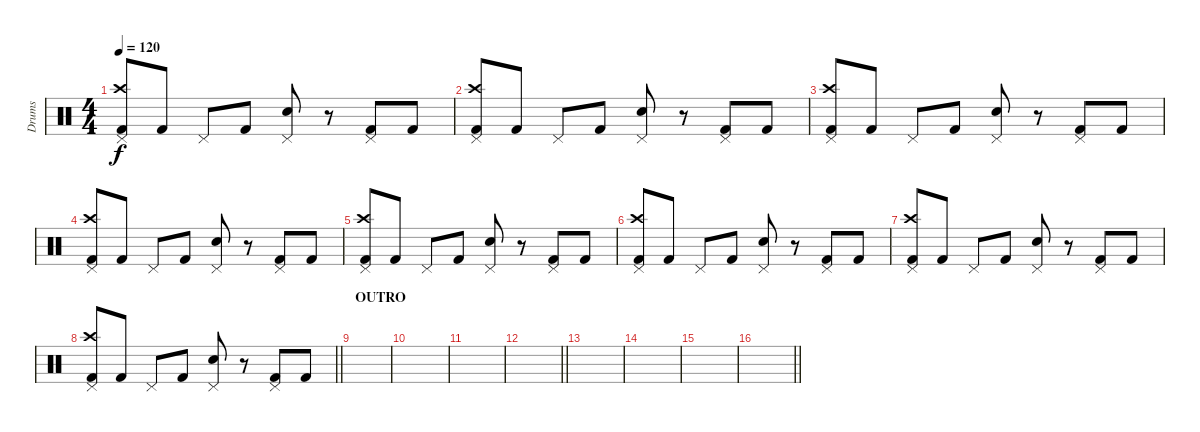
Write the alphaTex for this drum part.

\track ("Drums" "Drums") {instrument percussion}
\staff {score}
\articulation defaults
\ts (4 4)
\tempo 120
\clef neutral
\ks c
("Pedal Hi-Hat (hit)" "Crash high (hit)" "Kick (hit) 2").8{dy f} "Kick (hit) 2".8 "Pedal Hi-Hat (hit)".8 "Kick (hit) 2".8 ("Pedal Hi-Hat (hit)" "Snare (hit) 2").8 r.8 ("Pedal Hi-Hat (hit)" "Kick (hit) 2").8 "Kick (hit) 2".8 |
("Pedal Hi-Hat (hit)" "Crash high (hit)" "Kick (hit) 2").8 "Kick (hit) 2".8 "Pedal Hi-Hat (hit)".8 "Kick (hit) 2".8 ("Pedal Hi-Hat (hit)" "Snare (hit) 2").8 r.8 ("Pedal Hi-Hat (hit)" "Kick (hit) 2").8 "Kick (hit) 2".8 |
("Pedal Hi-Hat (hit)" "Crash high (hit)" "Kick (hit) 2").8 "Kick (hit) 2".8 "Pedal Hi-Hat (hit)".8 "Kick (hit) 2".8 ("Pedal Hi-Hat (hit)" "Snare (hit) 2").8 r.8 ("Pedal Hi-Hat (hit)" "Kick (hit) 2").8 "Kick (hit) 2".8 |
("Pedal Hi-Hat (hit)" "Crash high (hit)" "Kick (hit) 2").8 "Kick (hit) 2".8 "Pedal Hi-Hat (hit)".8 "Kick (hit) 2".8 ("Pedal Hi-Hat (hit)" "Snare (hit) 2").8 r.8 ("Pedal Hi-Hat (hit)" "Kick (hit) 2").8 "Kick (hit) 2".8 |
("Pedal Hi-Hat (hit)" "Crash high (hit)" "Kick (hit) 2").8 "Kick (hit) 2".8 "Pedal Hi-Hat (hit)".8 "Kick (hit) 2".8 ("Pedal Hi-Hat (hit)" "Snare (hit) 2").8 r.8 ("Pedal Hi-Hat (hit)" "Kick (hit) 2").8 "Kick (hit) 2".8 |
("Pedal Hi-Hat (hit)" "Crash high (hit)" "Kick (hit) 2").8 "Kick (hit) 2".8 "Pedal Hi-Hat (hit)".8 "Kick (hit) 2".8 ("Pedal Hi-Hat (hit)" "Snare (hit) 2").8 r.8 ("Pedal Hi-Hat (hit)" "Kick (hit) 2").8 "Kick (hit) 2".8 |
("Pedal Hi-Hat (hit)" "Crash high (hit)" "Kick (hit) 2").8 "Kick (hit) 2".8 "Pedal Hi-Hat (hit)".8 "Kick (hit) 2".8 ("Pedal Hi-Hat (hit)" "Snare (hit) 2").8 r.8 ("Pedal Hi-Hat (hit)" "Kick (hit) 2").8 "Kick (hit) 2".8 |
\barLineRight lightlight
("Pedal Hi-Hat (hit)" "Crash high (hit)" "Kick (hit) 2").8 "Kick (hit) 2".8 "Pedal Hi-Hat (hit)".8 "Kick (hit) 2".8 ("Pedal Hi-Hat (hit)" "Snare (hit) 2").8 r.8 ("Pedal Hi-Hat (hit)" "Kick (hit) 2").8 "Kick (hit) 2".8 |
\section ("" "OUTRO")
|
|
|
\barLineRight lightlight
|
|
|
|
\barLineRight lightlight
